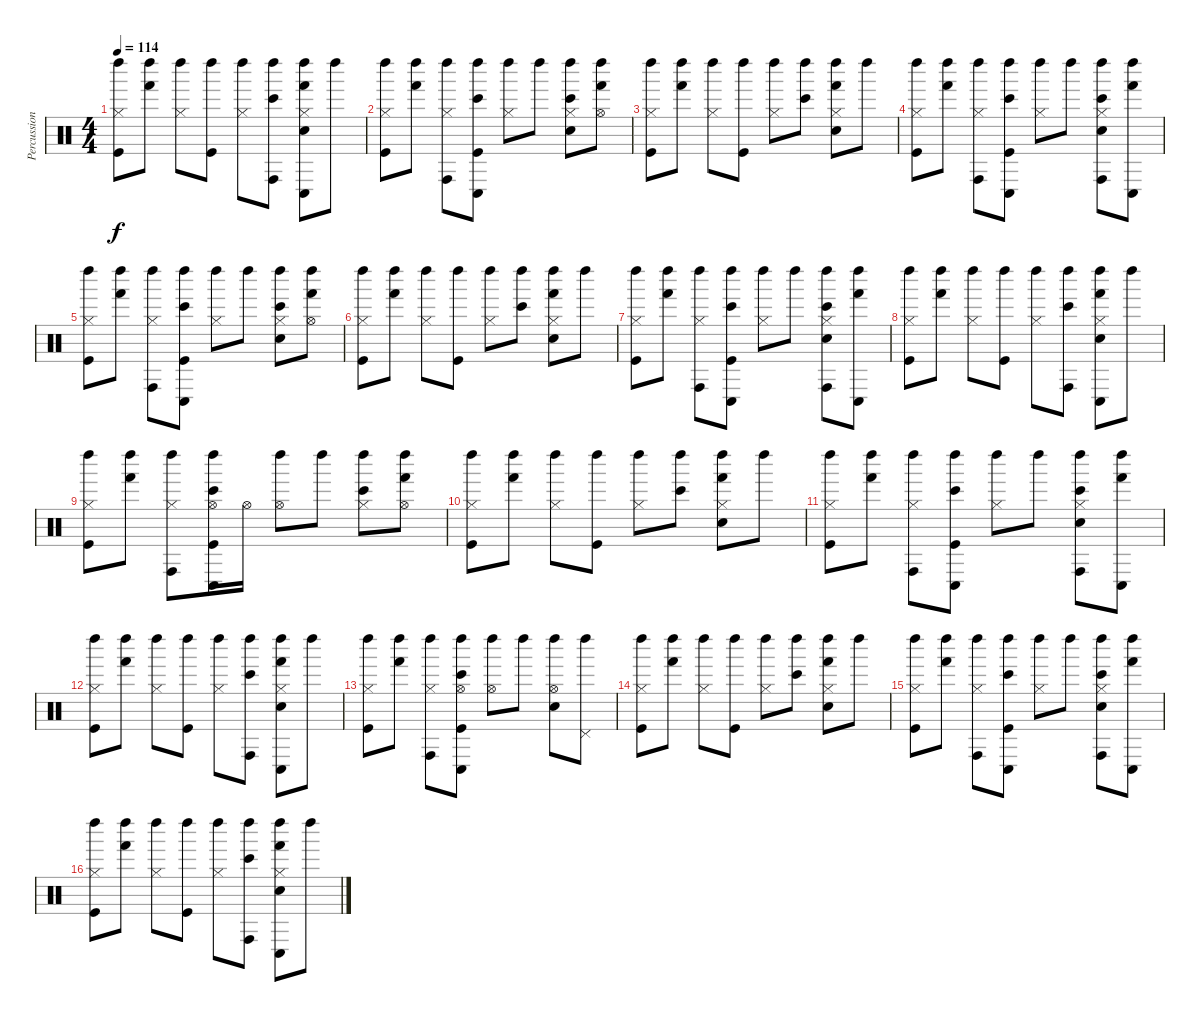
\track ("Percussion" "Percussion") {instrument percussion}
\staff {score}
\articulation defaults
\ts (4 4)
\tempo 114
\clef neutral
\ks c
("Left Maraca (hit)" "Hi-Hat (closed)" "Kick (hit)").8{dy f} ("Left Maraca (hit)" "Hand (hit)").8 ("Left Maraca (hit)" "Hi-Hat (closed)").8 ("Left Maraca (hit)" "Kick (hit)").8 ("Left Maraca (hit)" "Hi-Hat (closed)").8 ("Left Maraca (hit)" "Conga high (hit)" "Bongo High (hit)").8 ("Left Maraca (hit)" "Conga low (hit)" "Hand (hit)" "Hi-Hat (closed)" "Snare (hit) 2").8 "Left Maraca (hit)".8 |
("Left Maraca (hit)" "Hi-Hat (closed)" "Kick (hit)").8 ("Left Maraca (hit)" "Hand (hit)").8 ("Left Maraca (hit)" "Conga high (hit)" "Hi-Hat (closed)").8 ("Left Maraca (hit)" "Conga low (hit)" "Bongo High (hit)" "Kick (hit)").8 ("Left Maraca (hit)" "Hi-Hat (closed)").8 "Left Maraca (hit)".8 ("Left Maraca (hit)" "Bongo High (hit)" "Hi-Hat (closed)" "Snare (hit) 2").8 ("Left Maraca (hit)" "Hand (hit)" "Hi-Hat (open)").8 |
("Left Maraca (hit)" "Hi-Hat (closed)" "Kick (hit)").8 ("Left Maraca (hit)" "Hand (hit)").8 ("Left Maraca (hit)" "Hi-Hat (closed)").8 ("Left Maraca (hit)" "Kick (hit)").8 ("Left Maraca (hit)" "Hi-Hat (closed)").8 ("Left Maraca (hit)" "Bongo High (hit)").8 ("Left Maraca (hit)" "Hand (hit)" "Hi-Hat (closed)" "Snare (hit) 2").8 "Left Maraca (hit)".8 |
("Left Maraca (hit)" "Hi-Hat (closed)" "Kick (hit)").8 ("Left Maraca (hit)" "Hand (hit)").8 ("Left Maraca (hit)" "Conga high (hit)" "Hi-Hat (closed)").8 ("Left Maraca (hit)" "Conga low (hit)" "Bongo High (hit)" "Kick (hit)").8 ("Left Maraca (hit)" "Hi-Hat (closed)").8 "Left Maraca (hit)".8 ("Left Maraca (hit)" "Conga high (hit)" "Bongo High (hit)" "Hi-Hat (closed)" "Snare (hit) 2").8 ("Left Maraca (hit)" "Conga low (hit)" "Hand (hit)").8 |
("Left Maraca (hit)" "Hi-Hat (closed)" "Kick (hit)").8 ("Left Maraca (hit)" "Hand (hit)").8 ("Left Maraca (hit)" "Conga high (hit)" "Hi-Hat (closed)").8 ("Left Maraca (hit)" "Conga low (hit)" "Bongo High (hit)" "Kick (hit)").8 ("Left Maraca (hit)" "Hi-Hat (closed)").8 "Left Maraca (hit)".8 ("Left Maraca (hit)" "Bongo High (hit)" "Hi-Hat (closed)" "Snare (hit) 2").8 ("Left Maraca (hit)" "Hand (hit)" "Hi-Hat (open)").8 |
("Left Maraca (hit)" "Hi-Hat (closed)" "Kick (hit)").8 ("Left Maraca (hit)" "Hand (hit)").8 ("Left Maraca (hit)" "Hi-Hat (closed)").8 ("Left Maraca (hit)" "Kick (hit)").8 ("Left Maraca (hit)" "Hi-Hat (closed)").8 ("Left Maraca (hit)" "Bongo High (hit)").8 ("Left Maraca (hit)" "Hand (hit)" "Hi-Hat (closed)" "Snare (hit) 2").8 "Left Maraca (hit)".8 |
("Left Maraca (hit)" "Hi-Hat (closed)" "Kick (hit)").8 ("Left Maraca (hit)" "Hand (hit)").8 ("Left Maraca (hit)" "Conga high (hit)" "Hi-Hat (closed)").8 ("Left Maraca (hit)" "Conga low (hit)" "Bongo High (hit)" "Kick (hit)").8 ("Left Maraca (hit)" "Hi-Hat (closed)").8 "Left Maraca (hit)".8 ("Left Maraca (hit)" "Conga high (hit)" "Bongo High (hit)" "Hi-Hat (closed)" "Snare (hit) 2").8 ("Left Maraca (hit)" "Conga low (hit)" "Hand (hit)").8 |
("Left Maraca (hit)" "Hi-Hat (closed)" "Kick (hit)").8 ("Left Maraca (hit)" "Hand (hit)").8 ("Left Maraca (hit)" "Hi-Hat (closed)").8 ("Left Maraca (hit)" "Kick (hit)").8 ("Left Maraca (hit)" "Hi-Hat (closed)").8 ("Left Maraca (hit)" "Conga high (hit)" "Bongo High (hit)").8 ("Left Maraca (hit)" "Conga low (hit)" "Hand (hit)" "Hi-Hat (closed)" "Snare (hit) 2").8 "Left Maraca (hit)".8 |
("Left Maraca (hit)" "Hi-Hat (closed)" "Kick (hit)").8 ("Left Maraca (hit)" "Hand (hit)").8 ("Left Maraca (hit)" "Conga high (hit)" "Hi-Hat (closed)").8 ("Left Maraca (hit)" "Conga low (hit)" "Bongo High (hit)" "Hi-Hat (open)" "Kick (hit)").16 "Hi-Hat (open)".16 ("Left Maraca (hit)" "Hi-Hat (open)").8 "Left Maraca (hit)".8 ("Left Maraca (hit)" "Bongo High (hit)" "Hi-Hat (closed)").8 ("Left Maraca (hit)" "Hand (hit)" "Hi-Hat (open)").8 |
("Left Maraca (hit)" "Hi-Hat (closed)" "Kick (hit)").8 ("Left Maraca (hit)" "Hand (hit)").8 ("Left Maraca (hit)" "Hi-Hat (closed)").8 ("Left Maraca (hit)" "Kick (hit)").8 ("Left Maraca (hit)" "Hi-Hat (closed)").8 ("Left Maraca (hit)" "Bongo High (hit)").8 ("Left Maraca (hit)" "Hand (hit)" "Hi-Hat (closed)" "Snare (hit) 2").8 "Left Maraca (hit)".8 |
("Left Maraca (hit)" "Hi-Hat (closed)" "Kick (hit)").8 ("Left Maraca (hit)" "Hand (hit)").8 ("Left Maraca (hit)" "Conga high (hit)" "Hi-Hat (closed)").8 ("Left Maraca (hit)" "Conga low (hit)" "Bongo High (hit)" "Kick (hit)").8 ("Left Maraca (hit)" "Hi-Hat (closed)").8 "Left Maraca (hit)".8 ("Left Maraca (hit)" "Conga high (hit)" "Bongo High (hit)" "Hi-Hat (closed)" "Snare (hit) 2").8 ("Left Maraca (hit)" "Conga low (hit)" "Hand (hit)").8 |
("Left Maraca (hit)" "Hi-Hat (closed)" "Kick (hit)").8 ("Left Maraca (hit)" "Hand (hit)").8 ("Left Maraca (hit)" "Hi-Hat (closed)").8 ("Left Maraca (hit)" "Kick (hit)").8 ("Left Maraca (hit)" "Hi-Hat (closed)").8 ("Left Maraca (hit)" "Conga high (hit)" "Bongo High (hit)").8 ("Left Maraca (hit)" "Conga low (hit)" "Hand (hit)" "Hi-Hat (closed)" "Snare (hit) 2").8 "Left Maraca (hit)".8 |
("Left Maraca (hit)" "Hi-Hat (closed)" "Kick (hit)").8 ("Left Maraca (hit)" "Hand (hit)").8 ("Left Maraca (hit)" "Conga high (hit)" "Hi-Hat (closed)").8 ("Left Maraca (hit)" "Conga low (hit)" "Bongo High (hit)" "Hi-Hat (open)" "Kick (hit)").8 ("Left Maraca (hit)" "Hi-Hat (open)").8 "Left Maraca (hit)".8 ("Left Maraca (hit)" "Hi-Hat (open)" "Snare (hit) 2").8 ("Left Maraca (hit)" "Pedal Hi-Hat (hit)").8 |
("Left Maraca (hit)" "Hi-Hat (closed)" "Kick (hit)").8 ("Left Maraca (hit)" "Hand (hit)").8 ("Left Maraca (hit)" "Hi-Hat (closed)").8 ("Left Maraca (hit)" "Kick (hit)").8 ("Left Maraca (hit)" "Hi-Hat (closed)").8 ("Left Maraca (hit)" "Bongo High (hit)").8 ("Left Maraca (hit)" "Hand (hit)" "Hi-Hat (closed)" "Snare (hit) 2").8 "Left Maraca (hit)".8 |
("Left Maraca (hit)" "Hi-Hat (closed)" "Kick (hit)").8 ("Left Maraca (hit)" "Hand (hit)").8 ("Left Maraca (hit)" "Conga high (hit)" "Hi-Hat (closed)").8 ("Left Maraca (hit)" "Conga low (hit)" "Bongo High (hit)" "Kick (hit)").8 ("Left Maraca (hit)" "Hi-Hat (closed)").8 "Left Maraca (hit)".8 ("Left Maraca (hit)" "Conga high (hit)" "Bongo High (hit)" "Hi-Hat (closed)" "Snare (hit) 2").8 ("Left Maraca (hit)" "Conga low (hit)" "Hand (hit)").8 |
("Left Maraca (hit)" "Hi-Hat (closed)" "Kick (hit)").8 ("Left Maraca (hit)" "Hand (hit)").8 ("Left Maraca (hit)" "Hi-Hat (closed)").8 ("Left Maraca (hit)" "Kick (hit)").8 ("Left Maraca (hit)" "Hi-Hat (closed)").8 ("Left Maraca (hit)" "Conga high (hit)" "Bongo High (hit)").8 ("Left Maraca (hit)" "Conga low (hit)" "Hand (hit)" "Hi-Hat (closed)" "Snare (hit) 2").8 "Left Maraca (hit)".8
